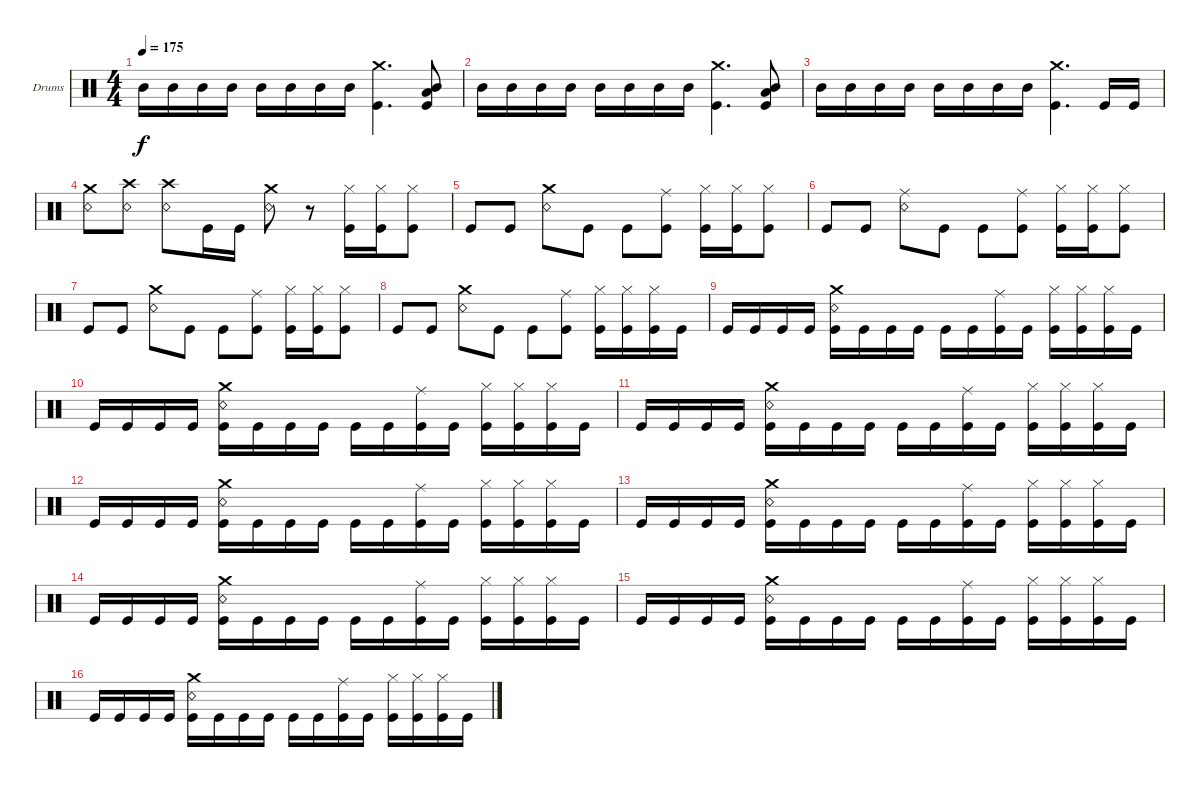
\bracketExtendMode groupsimilarinstruments
\firstSystemTrackNameOrientation horizontal
\otherSystemsTrackNameOrientation horizontal
\track ("Drumkit" "Drums") {instrument percussion}
\staff {score}
\articulation defaults
\ts (4 4)
\tempo 175
\clef neutral
\ks c "Mid Tom (hit)".16{dy f} "Mid Tom (hit)".16 "Mid Tom (hit)".16 "Mid Tom (hit)".16 "Mid Tom (hit)".16 "Mid Tom (hit)".16 "Mid Tom (hit)".16 "Mid Tom (hit)".16
("Crash medium (hit)" "Kick (hit)").4{d} ("Mid Tom (hit)" "Low Tom (hit)" "Kick (hit)").8 |
"Mid Tom (hit)".16 "Mid Tom (hit)".16 "Mid Tom (hit)".16 "Mid Tom (hit)".16 "Mid Tom (hit)".16 "Mid Tom (hit)".16 "Mid Tom (hit)".16 "Mid Tom (hit)".16 ("Crash medium (hit)" "Kick (hit)").4{d} ("Mid Tom (hit)" "Low Tom (hit)" "Kick (hit)").8 |
"Mid Tom (hit)".16 "Mid Tom (hit)".16 "Mid Tom (hit)".16 "Mid Tom (hit)".16 "Mid Tom (hit)".16 "Mid Tom (hit)".16 "Mid Tom (hit)".16 "Mid Tom (hit)".16 ("Crash medium (hit)" "Kick (hit)").4{d} "Kick (hit)".16 "Kick (hit)".16 |
("Crash medium (hit)" "Snare (rim shot)").8 ("Crash high (hit)" "Snare (rim shot)").8 ("Crash high (hit)" "Snare (rim shot)").8 "Kick (hit)".16 "Kick (hit)".16 ("Crash medium (hit)" "Snare (rim shot)").8 r.8 ("Hi-Hat (closed)" "Kick (hit)").16 ("Hi-Hat (closed)" "Kick (hit)").16 ("Hi-Hat (closed)" "Kick (hit)").8 |
"Kick (hit)".8 "Kick (hit)".8 ("Crash medium (hit)" "Snare (rim shot)").8 "Kick (hit)".8 "Kick (hit)".8 ("Ride (middle)" "Kick (hit)").8 ("Hi-Hat (closed)" "Kick (hit)").16 ("Hi-Hat (closed)" "Kick (hit)").16 ("Hi-Hat (closed)" "Kick (hit)").8 |
"Kick (hit)".8 "Kick (hit)".8 ("Ride (middle)" "Snare (rim shot)").8 "Kick (hit)".8 "Kick (hit)".8 ("Ride (middle)" "Kick (hit)").8 ("Hi-Hat (closed)" "Kick (hit)").16 ("Hi-Hat (closed)" "Kick (hit)").16 ("Hi-Hat (closed)" "Kick (hit)").8 |
"Kick (hit)".8 "Kick (hit)".8 ("Crash medium (hit)" "Snare (rim shot)").8 "Kick (hit)".8 "Kick (hit)".8 ("Ride (middle)" "Kick (hit)").8 ("Hi-Hat (closed)" "Kick (hit)").16 ("Hi-Hat (closed)" "Kick (hit)").16 ("Hi-Hat (closed)" "Kick (hit)").8 |
"Kick (hit)".8 "Kick (hit)".8 ("Crash medium (hit)" "Snare (rim shot)").8 "Kick (hit)".8 "Kick (hit)".8 ("Ride (middle)" "Kick (hit)").8 ("Hi-Hat (closed)" "Kick (hit)").16 ("Hi-Hat (closed)" "Kick (hit)").16 ("Hi-Hat (closed)" "Kick (hit)").16 "Kick (hit)".16 |
"Kick (hit)".16 "Kick (hit)".16 "Kick (hit)".16 "Kick (hit)".16 ("Crash medium (hit)" "Snare (rim shot)" "Kick (hit)").16 "Kick (hit)".16 "Kick (hit)".16 "Kick (hit)".16 "Kick (hit)".16 "Kick (hit)".16 ("Ride (middle)" "Kick (hit)").16 "Kick (hit)".16 ("Hi-Hat (closed)" "Kick (hit)").16 ("Hi-Hat (closed)" "Kick (hit)").16 ("Hi-Hat (closed)" "Kick (hit)").16 "Kick (hit)".16 |
"Kick (hit)".16 "Kick (hit)".16 "Kick (hit)".16 "Kick (hit)".16 ("Crash medium (hit)" "Snare (rim shot)" "Kick (hit)").16 "Kick (hit)".16 "Kick (hit)".16 "Kick (hit)".16 "Kick (hit)".16 "Kick (hit)".16 ("Ride (middle)" "Kick (hit)").16 "Kick (hit)".16 ("Hi-Hat (closed)" "Kick (hit)").16 ("Hi-Hat (closed)" "Kick (hit)").16 ("Hi-Hat (closed)" "Kick (hit)").16 "Kick (hit)".16 |
"Kick (hit)".16 "Kick (hit)".16 "Kick (hit)".16 "Kick (hit)".16 ("Crash medium (hit)" "Snare (rim shot)" "Kick (hit)").16 "Kick (hit)".16 "Kick (hit)".16 "Kick (hit)".16 "Kick (hit)".16 "Kick (hit)".16 ("Ride (middle)" "Kick (hit)").16 "Kick (hit)".16 ("Hi-Hat (closed)" "Kick (hit)").16 ("Hi-Hat (closed)" "Kick (hit)").16 ("Hi-Hat (closed)" "Kick (hit)").16 "Kick (hit)".16 |
"Kick (hit)".16 "Kick (hit)".16 "Kick (hit)".16 "Kick (hit)".16 ("Crash medium (hit)" "Snare (rim shot)" "Kick (hit)").16 "Kick (hit)".16 "Kick (hit)".16 "Kick (hit)".16 "Kick (hit)".16 "Kick (hit)".16 ("Ride (middle)" "Kick (hit)").16 "Kick (hit)".16 ("Hi-Hat (closed)" "Kick (hit)").16 ("Hi-Hat (closed)" "Kick (hit)").16 ("Hi-Hat (closed)" "Kick (hit)").16 "Kick (hit)".16 |
"Kick (hit)".16 "Kick (hit)".16 "Kick (hit)".16 "Kick (hit)".16 ("Crash medium (hit)" "Snare (rim shot)" "Kick (hit)").16 "Kick (hit)".16 "Kick (hit)".16 "Kick (hit)".16 "Kick (hit)".16 "Kick (hit)".16 ("Ride (middle)" "Kick (hit)").16 "Kick (hit)".16 ("Hi-Hat (closed)" "Kick (hit)").16 ("Hi-Hat (closed)" "Kick (hit)").16 ("Hi-Hat (closed)" "Kick (hit)").16 "Kick (hit)".16 |
"Kick (hit)".16 "Kick (hit)".16 "Kick (hit)".16 "Kick (hit)".16 ("Crash medium (hit)" "Snare (rim shot)" "Kick (hit)").16 "Kick (hit)".16 "Kick (hit)".16 "Kick (hit)".16 "Kick (hit)".16 "Kick (hit)".16 ("Ride (middle)" "Kick (hit)").16 "Kick (hit)".16 ("Hi-Hat (closed)" "Kick (hit)").16 ("Hi-Hat (closed)" "Kick (hit)").16 ("Hi-Hat (closed)" "Kick (hit)").16 "Kick (hit)".16 |
"Kick (hit)".16 "Kick (hit)".16 "Kick (hit)".16 "Kick (hit)".16 ("Crash medium (hit)" "Snare (rim shot)" "Kick (hit)").16 "Kick (hit)".16 "Kick (hit)".16 "Kick (hit)".16 "Kick (hit)".16 "Kick (hit)".16 ("Ride (middle)" "Kick (hit)").16 "Kick (hit)".16 ("Hi-Hat (closed)" "Kick (hit)").16 ("Hi-Hat (closed)" "Kick (hit)").16 ("Hi-Hat (closed)" "Kick (hit)").16 "Kick (hit)".16 |
"Kick (hit)".16 "Kick (hit)".16 "Kick (hit)".16 "Kick (hit)".16 ("Crash medium (hit)" "Kick (hit)" "Snare (rim shot)").16 "Kick (hit)".16 "Kick (hit)".16 "Kick (hit)".16 "Kick (hit)".16 "Kick (hit)".16 ("Ride (middle)" "Kick (hit)").16 "Kick (hit)".16 ("Hi-Hat (closed)" "Kick (hit)").16 ("Hi-Hat (closed)" "Kick (hit)").16 ("Hi-Hat (closed)" "Kick (hit)").16 "Kick (hit)".16
